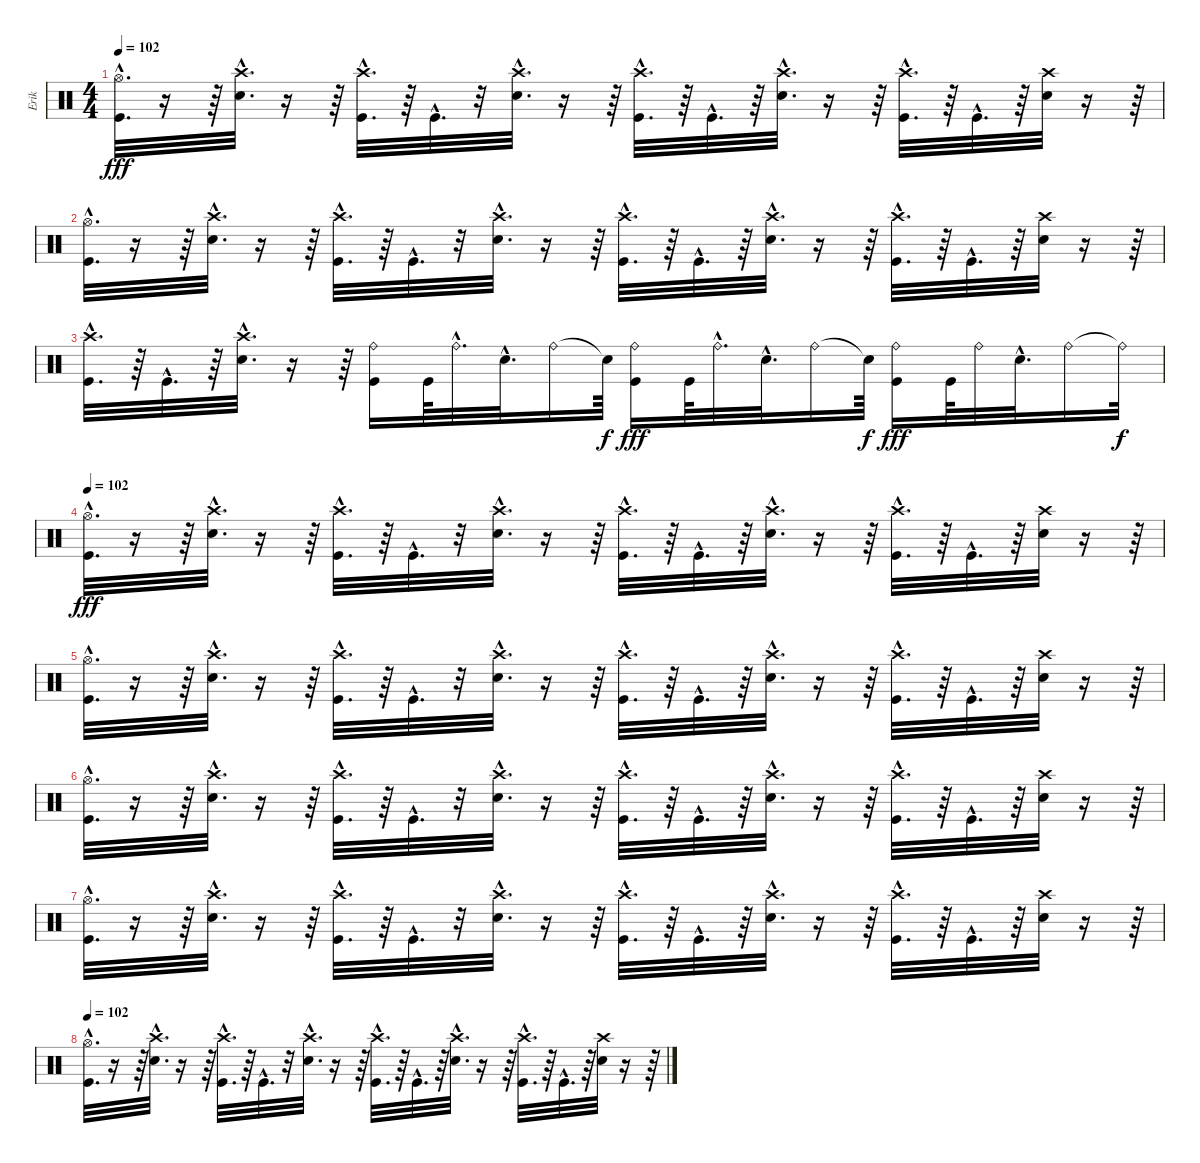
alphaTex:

\track ("Erik" "Erik") {instrument percussion}
\staff {score}
\articulation defaults
\ts (4 4)
\tempo 102
\clef neutral
\ks c
("Hi-Hat (open)"{hac} "Kick (hit)"{hac}).32{d dy fff} r.16 r.64 ("Crash high (hit)"{hac} "Electric Snare (hit)"{hac}).32{d} r.16 r.64 ("Kick (hit)"{hac} "Crash high (hit)"{hac}).32{d} r.64 "Kick (hit)"{hac}.32{d} r.32 ("Crash high (hit)"{hac} "Electric Snare (hit)"{hac}).32{d} r.16 r.64 ("Crash high (hit)"{hac} "Kick (hit)"{hac}).32{d} r.64 "Kick (hit)"{hac}.32{d} r.64 ("Crash high (hit)"{hac} "Electric Snare (hit)"{hac}).32{d} r.16 r.64 ("Kick (hit)"{hac} "Crash high (hit)"{hac}).32{d} r.64 "Kick (hit)"{hac}.32{d} r.64 ("Electric Snare (hit)" "Crash high (hit)").32 r.16 r.64 |
("Hi-Hat (open)"{hac} "Kick (hit)"{hac}).32{d} r.16 r.64 ("Crash high (hit)"{hac} "Electric Snare (hit)"{hac}).32{d} r.16 r.64 ("Kick (hit)"{hac} "Crash high (hit)"{hac}).32{d} r.64 "Kick (hit)"{hac}.32{d} r.32 ("Crash high (hit)"{hac} "Electric Snare (hit)"{hac}).32{d} r.16 r.64 ("Crash high (hit)"{hac} "Kick (hit)"{hac}).32{d} r.64 "Kick (hit)"{hac}.32{d} r.64 ("Crash high (hit)"{hac} "Electric Snare (hit)"{hac}).32{d} r.16 r.64 ("Kick (hit)"{hac} "Crash high (hit)"{hac}).32{d} r.64 "Kick (hit)"{hac}.32{d} r.64 ("Electric Snare (hit)" "Crash high (hit)").32 r.16 r.64 |
("Crash high (hit)"{hac} "Kick (hit)"{hac}).32{d} r.64 "Kick (hit)"{hac}.32{d} r.64 ("Crash high (hit)"{hac} "Electric Snare (hit)"{hac}).32{d} r.16 r.64 ("Kick (hit)" "Ride (bell)").16 "Kick (hit)".64 "Ride (bell)"{hac}.32{d} "Electric Snare (hit)"{hac}.32{d} "Ride (bell)".16 "Snare (hit)"{t}.64{dy f} ("Ride (bell)" "Kick (hit)").16{dy fff} "Kick (hit)".64 "Ride (bell)"{hac}.32{d} "Electric Snare (hit)"{hac}.32{d} "Ride (bell)".16 "Snare (hit)"{t}.64{dy f} ("Ride (bell)" "Kick (hit)").16{dy fff} "Kick (hit)".64 "Ride (bell)".32 "Electric Snare (hit)"{hac}.32{d} "Ride (bell)".16 "Ride (bell)"{t}.32{dy f} |
\tempo 102
("Hi-Hat (open)"{hac} "Kick (hit)"{hac}).32{d dy fff} r.16 r.64 ("Crash high (hit)"{hac} "Electric Snare (hit)"{hac}).32{d} r.16 r.64 ("Kick (hit)"{hac} "Crash high (hit)"{hac}).32{d} r.64 "Kick (hit)"{hac}.32{d} r.32 ("Crash high (hit)"{hac} "Electric Snare (hit)"{hac}).32{d} r.16 r.64 ("Crash high (hit)"{hac} "Kick (hit)"{hac}).32{d} r.64 "Kick (hit)"{hac}.32{d} r.64 ("Crash high (hit)"{hac} "Electric Snare (hit)"{hac}).32{d} r.16 r.64 ("Kick (hit)"{hac} "Crash high (hit)"{hac}).32{d} r.64 "Kick (hit)"{hac}.32{d} r.64 ("Electric Snare (hit)" "Crash high (hit)").32 r.16 r.64 |
("Hi-Hat (open)"{hac} "Kick (hit)"{hac}).32{d} r.16 r.64 ("Crash high (hit)"{hac} "Electric Snare (hit)"{hac}).32{d} r.16 r.64 ("Kick (hit)"{hac} "Crash high (hit)"{hac}).32{d} r.64 "Kick (hit)"{hac}.32{d} r.32 ("Crash high (hit)"{hac} "Electric Snare (hit)"{hac}).32{d} r.16 r.64 ("Crash high (hit)"{hac} "Kick (hit)"{hac}).32{d} r.64 "Kick (hit)"{hac}.32{d} r.64 ("Crash high (hit)"{hac} "Electric Snare (hit)"{hac}).32{d} r.16 r.64 ("Kick (hit)"{hac} "Crash high (hit)"{hac}).32{d} r.64 "Kick (hit)"{hac}.32{d} r.64 ("Electric Snare (hit)" "Crash high (hit)").32 r.16 r.64 |
("Hi-Hat (open)"{hac} "Kick (hit)"{hac}).32{d} r.16 r.64 ("Crash high (hit)"{hac} "Electric Snare (hit)"{hac}).32{d} r.16 r.64 ("Kick (hit)"{hac} "Crash high (hit)"{hac}).32{d} r.64 "Kick (hit)"{hac}.32{d} r.32 ("Crash high (hit)"{hac} "Electric Snare (hit)"{hac}).32{d} r.16 r.64 ("Crash high (hit)"{hac} "Kick (hit)"{hac}).32{d} r.64 "Kick (hit)"{hac}.32{d} r.64 ("Crash high (hit)"{hac} "Electric Snare (hit)"{hac}).32{d} r.16 r.64 ("Kick (hit)"{hac} "Crash high (hit)"{hac}).32{d} r.64 "Kick (hit)"{hac}.32{d} r.64 ("Electric Snare (hit)" "Crash high (hit)").32 r.16 r.64 |
("Hi-Hat (open)"{hac} "Kick (hit)"{hac}).32{d} r.16 r.64 ("Crash high (hit)"{hac} "Electric Snare (hit)"{hac}).32{d} r.16 r.64 ("Kick (hit)"{hac} "Crash high (hit)"{hac}).32{d} r.64 "Kick (hit)"{hac}.32{d} r.32 ("Crash high (hit)"{hac} "Electric Snare (hit)"{hac}).32{d} r.16 r.64 ("Crash high (hit)"{hac} "Kick (hit)"{hac}).32{d} r.64 "Kick (hit)"{hac}.32{d} r.64 ("Crash high (hit)"{hac} "Electric Snare (hit)"{hac}).32{d} r.16 r.64 ("Kick (hit)"{hac} "Crash high (hit)"{hac}).32{d} r.64 "Kick (hit)"{hac}.32{d} r.64 ("Electric Snare (hit)" "Crash high (hit)").32 r.16 r.64 |
\tempo 102
("Hi-Hat (open)"{hac} "Kick (hit)"{hac}).32{d} r.16 r.64 ("Crash high (hit)"{hac} "Electric Snare (hit)"{hac}).32{d} r.16 r.64 ("Kick (hit)"{hac} "Crash high (hit)"{hac}).32{d} r.64 "Kick (hit)"{hac}.32{d} r.32 ("Crash high (hit)"{hac} "Electric Snare (hit)"{hac}).32{d} r.16 r.64 ("Crash high (hit)"{hac} "Kick (hit)"{hac}).32{d} r.64 "Kick (hit)"{hac}.32{d} r.64 ("Crash high (hit)"{hac} "Electric Snare (hit)"{hac}).32{d} r.16 r.64 ("Kick (hit)"{hac} "Crash high (hit)"{hac}).32{d} r.64 "Kick (hit)"{hac}.32{d} r.64 ("Electric Snare (hit)" "Crash high (hit)").32 r.16 r.64
